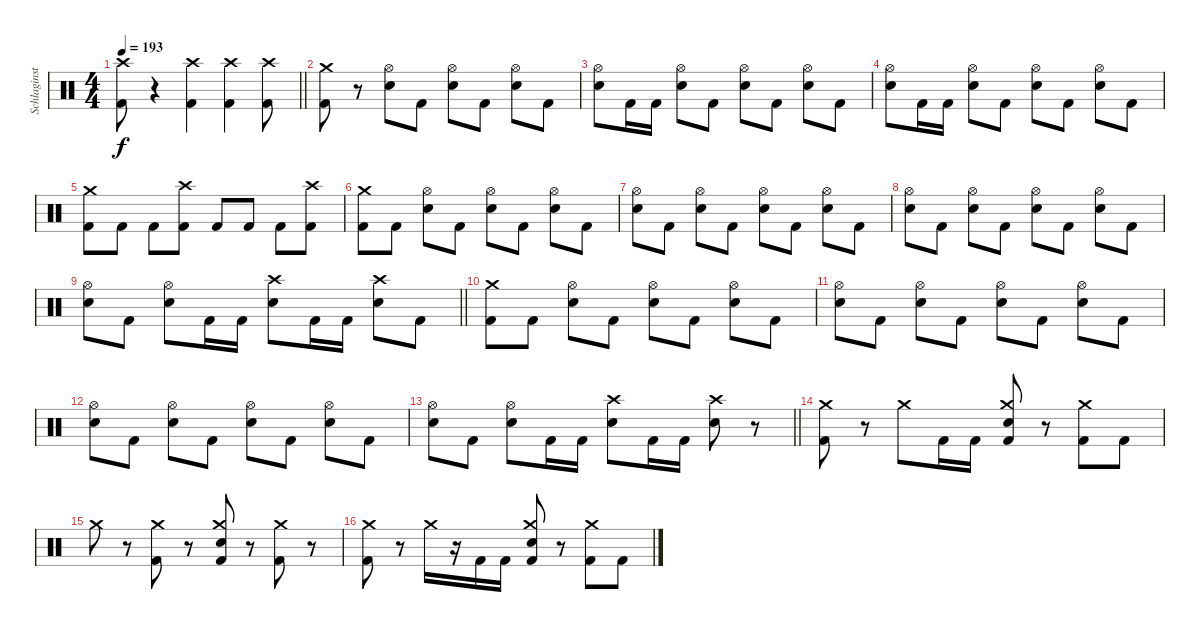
\track ("Schlaginstrumente - Auswahl" "Schlaginst") {instrument percussion}
\staff {score}
\articulation defaults
\ts (4 4)
\tempo 193
\clef neutral
\barLineRight lightlight
\ks c
("Crash high (hit)" "Kick (hit) 2").8{dy f} r.4 ("Crash high (hit)" "Kick (hit) 2").4 ("Crash high (hit)" "Kick (hit) 2").4 ("Crash high (hit)" "Kick (hit) 2").8 |
("Crash medium (hit)" "Kick (hit) 2").8 r.8 ("Hi-Hat (open)" "Electric Snare (hit)").8 "Kick (hit) 2".8 ("Hi-Hat (open)" "Electric Snare (hit)").8 "Kick (hit) 2".8 ("Hi-Hat (open)" "Electric Snare (hit)").8 "Kick (hit) 2".8 |
("Hi-Hat (open)" "Electric Snare (hit)").8 "Kick (hit) 2".16 "Kick (hit) 2".16 ("Hi-Hat (open)" "Electric Snare (hit)").8 "Kick (hit) 2".8 ("Hi-Hat (open)" "Electric Snare (hit)").8 "Kick (hit) 2".8 ("Hi-Hat (open)" "Electric Snare (hit)").8 "Kick (hit) 2".8 |
("Hi-Hat (open)" "Electric Snare (hit)").8 "Kick (hit) 2".16 "Kick (hit) 2".16 ("Hi-Hat (open)" "Electric Snare (hit)").8 "Kick (hit) 2".8 ("Hi-Hat (open)" "Electric Snare (hit)").8 "Kick (hit) 2".8 ("Hi-Hat (open)" "Electric Snare (hit)").8 "Kick (hit) 2".8 |
("Crash medium (hit)" "Kick (hit) 2").8 "Kick (hit) 2".8 "Kick (hit) 2".8 ("Crash high (hit)" "Kick (hit) 2").8 "Kick (hit) 2".8 "Kick (hit) 2".8 "Kick (hit) 2".8 ("Crash high (hit)" "Kick (hit) 2").8 |
("Crash medium (hit)" "Kick (hit) 2").8 "Kick (hit) 2".8 ("Hi-Hat (open)" "Electric Snare (hit)").8 "Kick (hit) 2".8 ("Hi-Hat (open)" "Electric Snare (hit)").8 "Kick (hit) 2".8 ("Hi-Hat (open)" "Electric Snare (hit)").8 "Kick (hit) 2".8 |
("Hi-Hat (open)" "Electric Snare (hit)").8 "Kick (hit) 2".8 ("Hi-Hat (open)" "Electric Snare (hit)").8 "Kick (hit) 2".8 ("Hi-Hat (open)" "Electric Snare (hit)").8 "Kick (hit) 2".8 ("Hi-Hat (open)" "Electric Snare (hit)").8 "Kick (hit) 2".8 |
("Hi-Hat (open)" "Electric Snare (hit)").8 "Kick (hit) 2".8 ("Hi-Hat (open)" "Electric Snare (hit)").8 "Kick (hit) 2".8 ("Hi-Hat (open)" "Electric Snare (hit)").8 "Kick (hit) 2".8 ("Hi-Hat (open)" "Electric Snare (hit)").8 "Kick (hit) 2".8 |
\barLineRight lightlight
("Hi-Hat (open)" "Electric Snare (hit)").8 "Kick (hit) 2".8 ("Hi-Hat (open)" "Electric Snare (hit)").8 "Kick (hit) 2".16 "Kick (hit) 2".16 ("Crash high (hit)" "Electric Snare (hit)").8 "Kick (hit) 2".16 "Kick (hit) 2".16 ("Crash high (hit)" "Electric Snare (hit)").8 "Kick (hit) 2".8 |
("Crash medium (hit)" "Kick (hit) 2").8 "Kick (hit) 2".8 ("Hi-Hat (open)" "Electric Snare (hit)").8 "Kick (hit) 2".8 ("Hi-Hat (open)" "Electric Snare (hit)").8 "Kick (hit) 2".8 ("Hi-Hat (open)" "Electric Snare (hit)").8 "Kick (hit) 2".8 |
("Hi-Hat (open)" "Electric Snare (hit)").8 "Kick (hit) 2".8 ("Hi-Hat (open)" "Electric Snare (hit)").8 "Kick (hit) 2".8 ("Hi-Hat (open)" "Electric Snare (hit)").8 "Kick (hit) 2".8 ("Hi-Hat (open)" "Electric Snare (hit)").8 "Kick (hit) 2".8 |
("Hi-Hat (open)" "Electric Snare (hit)").8 "Kick (hit) 2".8 ("Hi-Hat (open)" "Electric Snare (hit)").8 "Kick (hit) 2".8 ("Hi-Hat (open)" "Electric Snare (hit)").8 "Kick (hit) 2".8 ("Hi-Hat (open)" "Electric Snare (hit)").8 "Kick (hit) 2".8 |
\barLineRight lightlight
("Hi-Hat (open)" "Electric Snare (hit)").8 "Kick (hit) 2".8 ("Hi-Hat (open)" "Electric Snare (hit)").8 "Kick (hit) 2".16 "Kick (hit) 2".16 ("Crash high (hit)" "Electric Snare (hit)").8 "Kick (hit) 2".16 "Kick (hit) 2".16 ("Crash high (hit)" "Electric Snare (hit)").8 r.8 |
("Crash medium (hit)" "Kick (hit) 2").8 r.8 "Crash medium (hit)".8 "Kick (hit) 2".16 "Kick (hit) 2".16 ("Crash medium (hit)" "Electric Snare (hit)" "Kick (hit) 2").8 r.8 ("Crash medium (hit)" "Kick (hit) 2").8 "Kick (hit) 2".8 |
"Crash medium (hit)".8 r.8 ("Crash medium (hit)" "Kick (hit) 2").8 r.8 ("Crash medium (hit)" "Electric Snare (hit)" "Kick (hit) 2").8 r.8 ("Crash medium (hit)" "Kick (hit) 2").8 r.8 |
("Crash medium (hit)" "Kick (hit) 2").8 r.8 "Crash medium (hit)".16 r.16 "Kick (hit) 2".16 "Kick (hit) 2".16 ("Crash medium (hit)" "Electric Snare (hit)" "Kick (hit) 2").8 r.8 ("Crash medium (hit)" "Kick (hit) 2").8 "Kick (hit) 2".8
